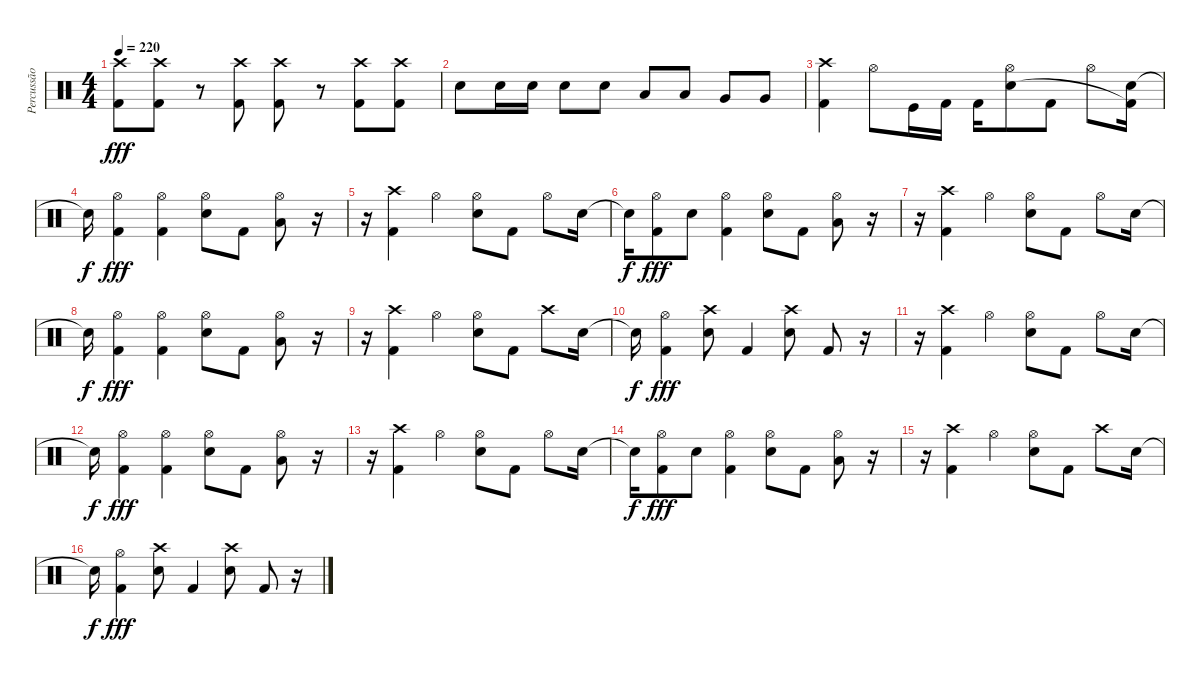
\track ("Percussão" "Percussão") {instrument percussion}
\staff {score}
\articulation defaults
\ts (4 4)
\tempo 220
\clef neutral
\ks c
("Crash high (hit)" "Kick (hit) 2").8{dy fff} ("Crash high (hit)" "Kick (hit) 2").8 r.8 ("Crash high (hit)" "Kick (hit) 2").8 ("Crash high (hit)" "Kick (hit) 2").8 r.8 ("Crash high (hit)" "Kick (hit) 2").8 ("Crash high (hit)" "Kick (hit) 2").8 |
"Electric Snare (hit)".8 "Electric Snare (hit)".16 "Electric Snare (hit)".16 "Electric Snare (hit)".8 "Electric Snare (hit)".8 "Low Tom (hit)".8 "Low Tom (hit)".8 "Very Low Tom (hit)".8 "Very Low Tom (hit)".8 |
("Crash high (hit)" "Kick (hit) 2").4 "Hi-Hat (open)".8 "Kick (hit)".16 "Kick (hit) 2".16 "Kick (hit) 2".16 ("Hi-Hat (open)" "Electric Snare (hit)").8 "Kick (hit) 2".8 "Hi-Hat (open)".8 ("Electric Snare (hit)" "Kick (hit) 2"{t}).16 |
"Electric Snare (hit)"{t}.16{dy f} ("Hi-Hat (open)" "Kick (hit) 2").4{dy fff} ("Hi-Hat (open)" "Kick (hit) 2").4 ("Hi-Hat (open)" "Electric Snare (hit)").8 "Kick (hit) 2".8 ("Hi-Hat (open)" "Low Floor Tom (hit)").8 r.16 |
r.16 ("Crash high (hit)" "Kick (hit) 2").4 "Hi-Hat (open)".4 ("Hi-Hat (open)" "Electric Snare (hit)").8 "Kick (hit) 2".8 "Hi-Hat (open)".8 "Electric Snare (hit)".16 |
"Electric Snare (hit)"{t}.16{dy f} ("Hi-Hat (open)" "Kick (hit) 2").8{dy fff} "Electric Snare (hit)".8 ("Hi-Hat (open)" "Kick (hit) 2").4 ("Hi-Hat (open)" "Electric Snare (hit)").8 "Kick (hit) 2".8 ("Hi-Hat (open)" "Low Floor Tom (hit)").8 r.16 |
r.16 ("Crash high (hit)" "Kick (hit) 2").4 "Hi-Hat (open)".4 ("Hi-Hat (open)" "Electric Snare (hit)").8 "Kick (hit) 2".8 "Hi-Hat (open)".8 "Electric Snare (hit)".16 |
"Electric Snare (hit)"{t}.16{dy f} ("Hi-Hat (open)" "Kick (hit) 2").4{dy fff} ("Hi-Hat (open)" "Kick (hit) 2").4 ("Hi-Hat (open)" "Electric Snare (hit)").8 "Kick (hit) 2".8 ("Hi-Hat (open)" "Low Floor Tom (hit)").8 r.16 |
r.16 ("Crash high (hit)" "Kick (hit) 2").4 "Hi-Hat (open)".4 ("Hi-Hat (open)" "Electric Snare (hit)").8 "Kick (hit) 2".8 "Crash high (hit)".8 "Electric Snare (hit)".16 |
"Electric Snare (hit)"{t}.16{dy f} ("Hi-Hat (open)" "Kick (hit) 2").4{dy fff} ("Crash high (hit)" "Electric Snare (hit)").8 "Kick (hit) 2".4 ("Crash high (hit)" "Electric Snare (hit)").8 "Kick (hit) 2".8 r.16 |
r.16 ("Crash high (hit)" "Kick (hit) 2").4 "Hi-Hat (open)".4 ("Hi-Hat (open)" "Electric Snare (hit)").8 "Kick (hit) 2".8 "Hi-Hat (open)".8 "Electric Snare (hit)".16 |
"Electric Snare (hit)"{t}.16{dy f} ("Hi-Hat (open)" "Kick (hit) 2").4{dy fff} ("Hi-Hat (open)" "Kick (hit) 2").4 ("Hi-Hat (open)" "Electric Snare (hit)").8 "Kick (hit) 2".8 ("Hi-Hat (open)" "Low Floor Tom (hit)").8 r.16 |
r.16 ("Crash high (hit)" "Kick (hit) 2").4 "Hi-Hat (open)".4 ("Hi-Hat (open)" "Electric Snare (hit)").8 "Kick (hit) 2".8 "Hi-Hat (open)".8 "Electric Snare (hit)".16 |
"Electric Snare (hit)"{t}.16{dy f} ("Hi-Hat (open)" "Kick (hit) 2").8{dy fff} "Electric Snare (hit)".8 ("Hi-Hat (open)" "Kick (hit) 2").4 ("Hi-Hat (open)" "Electric Snare (hit)").8 "Kick (hit) 2".8 ("Hi-Hat (open)" "Low Floor Tom (hit)").8 r.16 |
r.16 ("Crash high (hit)" "Kick (hit) 2").4 "Hi-Hat (open)".4 ("Hi-Hat (open)" "Electric Snare (hit)").8 "Kick (hit) 2".8 "Crash high (hit)".8 "Electric Snare (hit)".16 |
"Electric Snare (hit)"{t}.16{dy f} ("Hi-Hat (open)" "Kick (hit) 2").4{dy fff} ("Crash high (hit)" "Electric Snare (hit)").8 "Kick (hit) 2".4 ("Crash high (hit)" "Electric Snare (hit)").8 "Kick (hit) 2".8 r.16
